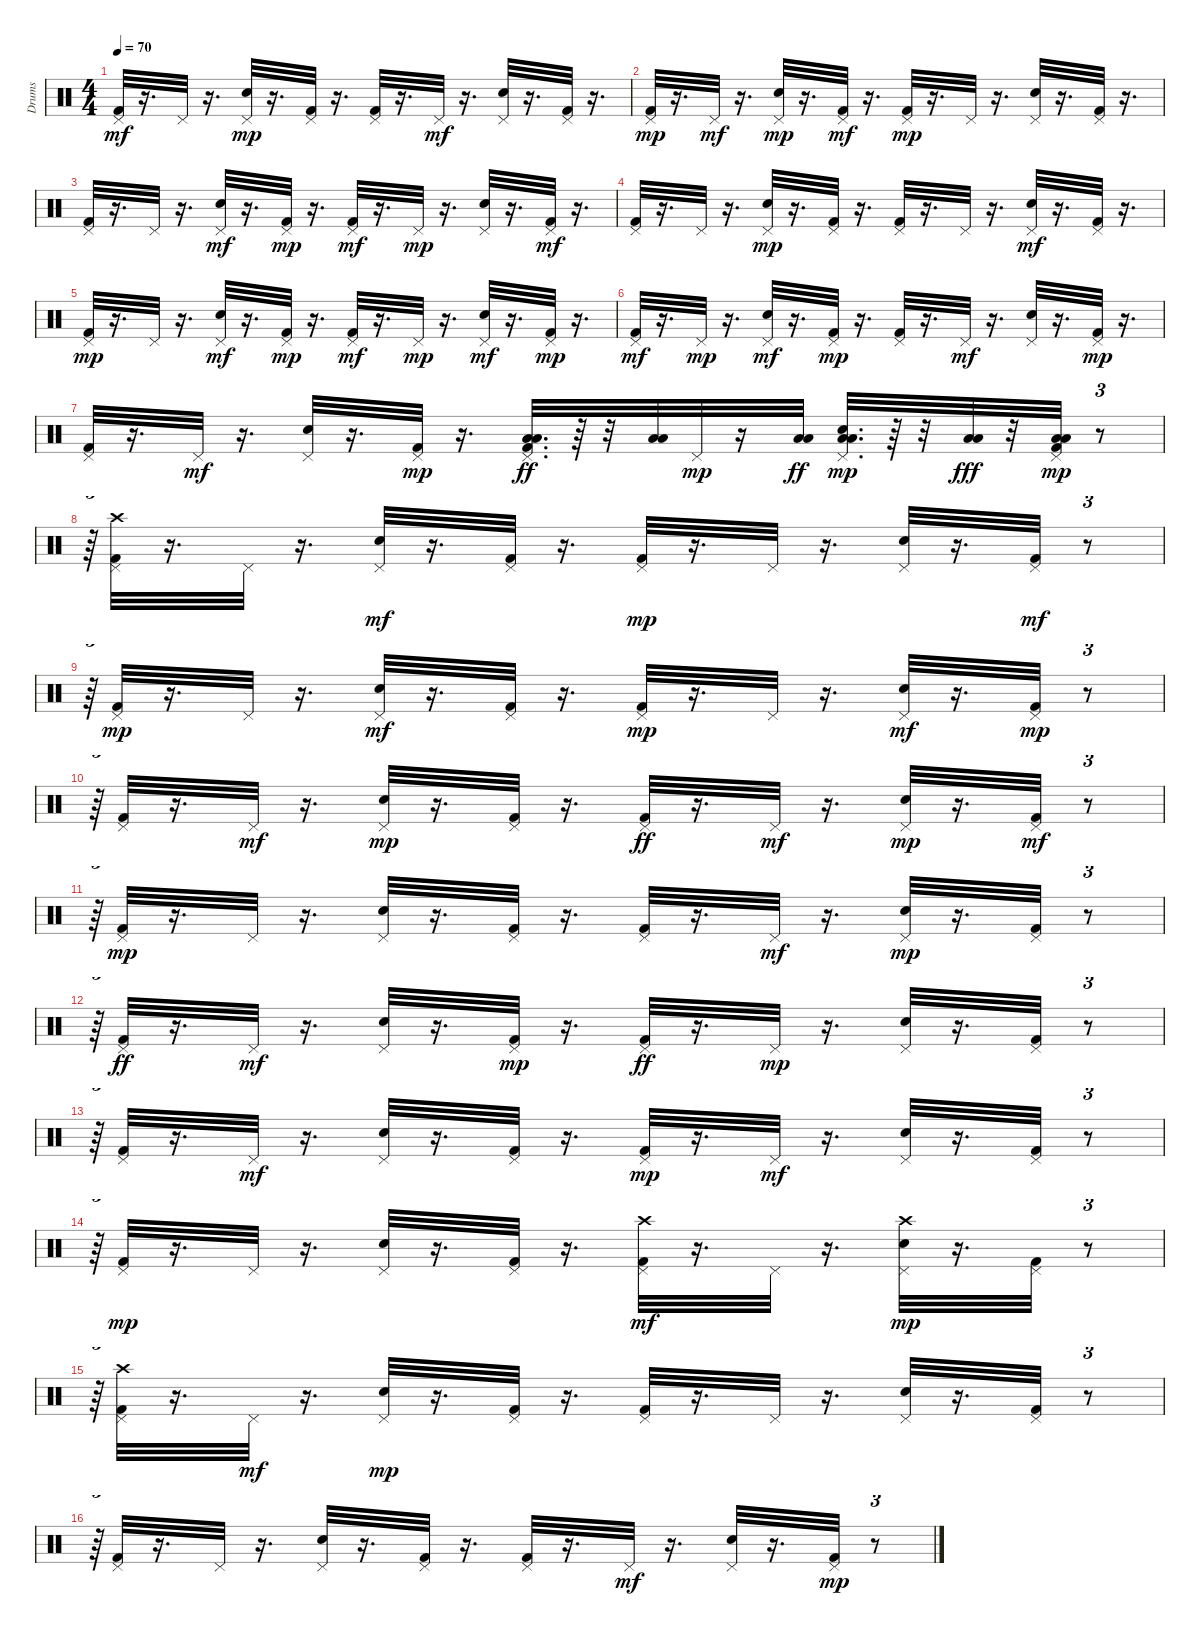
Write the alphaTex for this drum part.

\track ("Drums" "Drums") {instrument percussion}
\staff {score}
\articulation defaults
\ts (4 4)
\tempo 70
\clef neutral
\ks c
("Pedal Hi-Hat (hit)" "Kick (hit) 2").32{dy mf} r.16{d} "Pedal Hi-Hat (hit)".32 r.16{d} ("Snare (hit) 2" "Pedal Hi-Hat (hit)").32{dy mp} r.16{d} ("Kick (hit) 2" "Pedal Hi-Hat (hit)").32 r.16{d} ("Pedal Hi-Hat (hit)" "Kick (hit) 2").32 r.16{d} "Pedal Hi-Hat (hit)".32{dy mf} r.16{d} ("Pedal Hi-Hat (hit)" "Snare (hit) 2").32 r.16{d} ("Kick (hit) 2" "Pedal Hi-Hat (hit)").32 r.16{d} |
("Pedal Hi-Hat (hit)" "Kick (hit) 2").32{dy mp} r.16{d} "Pedal Hi-Hat (hit)".32{dy mf} r.16{d} ("Snare (hit) 2" "Pedal Hi-Hat (hit)").32{dy mp} r.16{d} ("Pedal Hi-Hat (hit)" "Kick (hit) 2").32{dy mf} r.16{d} ("Kick (hit) 2" "Pedal Hi-Hat (hit)").32{dy mp} r.16{d} "Pedal Hi-Hat (hit)".32 r.16{d} ("Snare (hit) 2" "Pedal Hi-Hat (hit)").32 r.16{d} ("Kick (hit) 2" "Pedal Hi-Hat (hit)").32 r.16{d} |
("Pedal Hi-Hat (hit)" "Kick (hit) 2").32 r.16{d} "Pedal Hi-Hat (hit)".32 r.16{d} ("Snare (hit) 2" "Pedal Hi-Hat (hit)").32{dy mf} r.16{d} ("Kick (hit) 2" "Pedal Hi-Hat (hit)").32{dy mp} r.16{d} ("Kick (hit) 2" "Pedal Hi-Hat (hit)").32{dy mf} r.16{d} "Pedal Hi-Hat (hit)".32{dy mp} r.16{d} ("Snare (hit) 2" "Pedal Hi-Hat (hit)").32 r.16{d} ("Pedal Hi-Hat (hit)" "Kick (hit) 2").32{dy mf} r.16{d} |
("Kick (hit) 2" "Pedal Hi-Hat (hit)").32 r.16{d} "Pedal Hi-Hat (hit)".32 r.16{d} ("Snare (hit) 2" "Pedal Hi-Hat (hit)").32{dy mp} r.16{d} ("Kick (hit) 2" "Pedal Hi-Hat (hit)").32 r.16{d} ("Kick (hit) 2" "Pedal Hi-Hat (hit)").32 r.16{d} "Pedal Hi-Hat (hit)".32 r.16{d} ("Snare (hit) 2" "Pedal Hi-Hat (hit)").32{dy mf} r.16{d} ("Pedal Hi-Hat (hit)" "Kick (hit) 2").32 r.16{d} |
("Kick (hit) 2" "Pedal Hi-Hat (hit)").32{dy mp} r.16{d} "Pedal Hi-Hat (hit)".32 r.16{d} ("Snare (hit) 2" "Pedal Hi-Hat (hit)").32{dy mf} r.16{d} ("Kick (hit) 2" "Pedal Hi-Hat (hit)").32{dy mp} r.16{d} ("Kick (hit) 2" "Pedal Hi-Hat (hit)").32{dy mf} r.16{d} "Pedal Hi-Hat (hit)".32{dy mp} r.16{d} ("Pedal Hi-Hat (hit)" "Snare (hit) 2").32{dy mf} r.16{d} ("Kick (hit) 2" "Pedal Hi-Hat (hit)").32{dy mp} r.16{d} |
("Kick (hit) 2" "Pedal Hi-Hat (hit)").32{dy mf} r.16{d} "Pedal Hi-Hat (hit)".32{dy mp} r.16{d} ("Pedal Hi-Hat (hit)" "Snare (hit) 2").32{dy mf} r.16{d} ("Kick (hit) 2" "Pedal Hi-Hat (hit)").32{dy mp} r.16{d} ("Pedal Hi-Hat (hit)" "Kick (hit) 2").32 r.16{d} "Pedal Hi-Hat (hit)".32{dy mf} r.16{d} ("Pedal Hi-Hat (hit)" "Snare (hit) 2").32 r.16{d} ("Pedal Hi-Hat (hit)" "Kick (hit) 2").32{dy mp} r.16{d} |
("Pedal Hi-Hat (hit)" "Kick (hit) 2").32 r.16{d} "Pedal Hi-Hat (hit)".32{dy mf} r.16{d} ("Snare (hit) 2" "Pedal Hi-Hat (hit)").32 r.16{d} ("Pedal Hi-Hat (hit)" "Kick (hit) 2").32{dy mp} r.16{d} ("Pedal Hi-Hat (hit)" "Low Tom (hit)" "Kick (hit) 2" "Low Floor Tom (hit)").32{d dy ff} r.64 r.32 ("Low Floor Tom (hit)" "Low Tom (hit)").32 "Pedal Hi-Hat (hit)".32{dy mp} r.16 ("Low Tom (hit)" "Low Floor Tom (hit)").32{dy ff} ("Low Tom (hit)" "Low Floor Tom (hit)" "Pedal Hi-Hat (hit)" "Snare (hit) 2").32{d dy mp} r.64 r.32 ("Low Floor Tom (hit)" "Low Tom (hit)").32{dy fff} r.32 ("Low Floor Tom (hit)" "Pedal Hi-Hat (hit)" "Low Tom (hit)" "Kick (hit) 2").32{dy mp} r.8{tu (3 2)} |
r.64{tu (3 2)} ("Kick (hit) 2" "Crash high (hit)" "Pedal Hi-Hat (hit)").32 r.16{d} "Pedal Hi-Hat (hit)".32 r.16{d} ("Snare (hit) 2" "Pedal Hi-Hat (hit)").32{dy mf} r.16{d} ("Kick (hit) 2" "Pedal Hi-Hat (hit)").32 r.16{d} ("Kick (hit) 2" "Pedal Hi-Hat (hit)").32{dy mp} r.16{d} "Pedal Hi-Hat (hit)".32 r.16{d} ("Snare (hit) 2" "Pedal Hi-Hat (hit)").32 r.16{d} ("Pedal Hi-Hat (hit)" "Kick (hit) 2").32{dy mf} r.8{tu (3 2)} |
r.64{tu (3 2)} ("Pedal Hi-Hat (hit)" "Kick (hit) 2").32{dy mp} r.16{d} "Pedal Hi-Hat (hit)".32 r.16{d} ("Pedal Hi-Hat (hit)" "Snare (hit) 2").32{dy mf} r.16{d} ("Kick (hit) 2" "Pedal Hi-Hat (hit)").32 r.16{d} ("Kick (hit) 2" "Pedal Hi-Hat (hit)").32{dy mp} r.16{d} "Pedal Hi-Hat (hit)".32 r.16{d} ("Pedal Hi-Hat (hit)" "Snare (hit) 2").32{dy mf} r.16{d} ("Pedal Hi-Hat (hit)" "Kick (hit) 2").32{dy mp} r.8{tu (3 2)} |
r.64{tu (3 2)} ("Pedal Hi-Hat (hit)" "Kick (hit) 2").32 r.16{d} "Pedal Hi-Hat (hit)".32{dy mf} r.16{d} ("Snare (hit) 2" "Pedal Hi-Hat (hit)").32{dy mp} r.16{d} ("Kick (hit) 2" "Pedal Hi-Hat (hit)").32 r.16{d} ("Pedal Hi-Hat (hit)" "Kick (hit) 2").32{dy ff} r.16{d} "Pedal Hi-Hat (hit)".32{dy mf} r.16{d} ("Snare (hit) 2" "Pedal Hi-Hat (hit)").32{dy mp} r.16{d} ("Kick (hit) 2" "Pedal Hi-Hat (hit)").32{dy mf} r.8{tu (3 2)} |
r.64{tu (3 2)} ("Pedal Hi-Hat (hit)" "Kick (hit) 2").32{dy mp} r.16{d} "Pedal Hi-Hat (hit)".32 r.16{d} ("Snare (hit) 2" "Pedal Hi-Hat (hit)").32 r.16{d} ("Pedal Hi-Hat (hit)" "Kick (hit) 2").32 r.16{d} ("Pedal Hi-Hat (hit)" "Kick (hit) 2").32 r.16{d} "Pedal Hi-Hat (hit)".32{dy mf} r.16{d} ("Pedal Hi-Hat (hit)" "Snare (hit) 2").32{dy mp} r.16{d} ("Pedal Hi-Hat (hit)" "Kick (hit) 2").32 r.8{tu (3 2)} |
r.64{tu (3 2)} ("Pedal Hi-Hat (hit)" "Kick (hit) 2").32{dy ff} r.16{d} "Pedal Hi-Hat (hit)".32{dy mf} r.16{d} ("Pedal Hi-Hat (hit)" "Snare (hit) 2").32 r.16{d} ("Kick (hit) 2" "Pedal Hi-Hat (hit)").32{dy mp} r.16{d} ("Pedal Hi-Hat (hit)" "Kick (hit) 2").32{dy ff} r.16{d} "Pedal Hi-Hat (hit)".32{dy mp} r.16{d} ("Snare (hit) 2" "Pedal Hi-Hat (hit)").32 r.16{d} ("Kick (hit) 2" "Pedal Hi-Hat (hit)").32 r.8{tu (3 2)} |
r.64{tu (3 2)} ("Pedal Hi-Hat (hit)" "Kick (hit) 2").32 r.16{d} "Pedal Hi-Hat (hit)".32{dy mf} r.16{d} ("Snare (hit) 2" "Pedal Hi-Hat (hit)").32 r.16{d} ("Pedal Hi-Hat (hit)" "Kick (hit) 2").32 r.16{d} ("Kick (hit) 2" "Pedal Hi-Hat (hit)").32{dy mp} r.16{d} "Pedal Hi-Hat (hit)".32{dy mf} r.16{d} ("Pedal Hi-Hat (hit)" "Snare (hit) 2").32 r.16{d} ("Kick (hit) 2" "Pedal Hi-Hat (hit)").32 r.8{tu (3 2)} |
r.64{tu (3 2)} ("Kick (hit) 2" "Pedal Hi-Hat (hit)").32{dy mp} r.16{d} "Pedal Hi-Hat (hit)".32 r.16{d} ("Snare (hit) 2" "Pedal Hi-Hat (hit)").32 r.16{d} ("Kick (hit) 2" "Pedal Hi-Hat (hit)").32 r.16{d} ("Crash high (hit)" "Kick (hit) 2" "Pedal Hi-Hat (hit)").32{dy mf} r.16{d} "Pedal Hi-Hat (hit)".32 r.16{d} ("Pedal Hi-Hat (hit)" "Crash high (hit)" "Snare (hit) 2").32{dy mp} r.16{d} ("Kick (hit) 2" "Pedal Hi-Hat (hit)").32 r.8{tu (3 2)} |
r.64{tu (3 2)} ("Crash high (hit)" "Pedal Hi-Hat (hit)" "Kick (hit) 2").32 r.16{d} "Pedal Hi-Hat (hit)".32{dy mf} r.16{d} ("Snare (hit) 2" "Pedal Hi-Hat (hit)").32{dy mp} r.16{d} ("Kick (hit) 2" "Pedal Hi-Hat (hit)").32 r.16{d} ("Kick (hit) 2" "Pedal Hi-Hat (hit)").32 r.16{d} "Pedal Hi-Hat (hit)".32 r.16{d} ("Snare (hit) 2" "Pedal Hi-Hat (hit)").32 r.16{d} ("Kick (hit) 2" "Pedal Hi-Hat (hit)").32 r.8{tu (3 2)} |
r.64{tu (3 2)} ("Kick (hit) 2" "Pedal Hi-Hat (hit)").32 r.16{d} "Pedal Hi-Hat (hit)".32 r.16{d} ("Snare (hit) 2" "Pedal Hi-Hat (hit)").32 r.16{d} ("Pedal Hi-Hat (hit)" "Kick (hit) 2").32 r.16{d} ("Kick (hit) 2" "Pedal Hi-Hat (hit)").32 r.16{d} "Pedal Hi-Hat (hit)".32{dy mf} r.16{d} ("Pedal Hi-Hat (hit)" "Snare (hit) 2").32 r.16{d} ("Kick (hit) 2" "Pedal Hi-Hat (hit)").32{dy mp} r.8{tu (3 2)}
